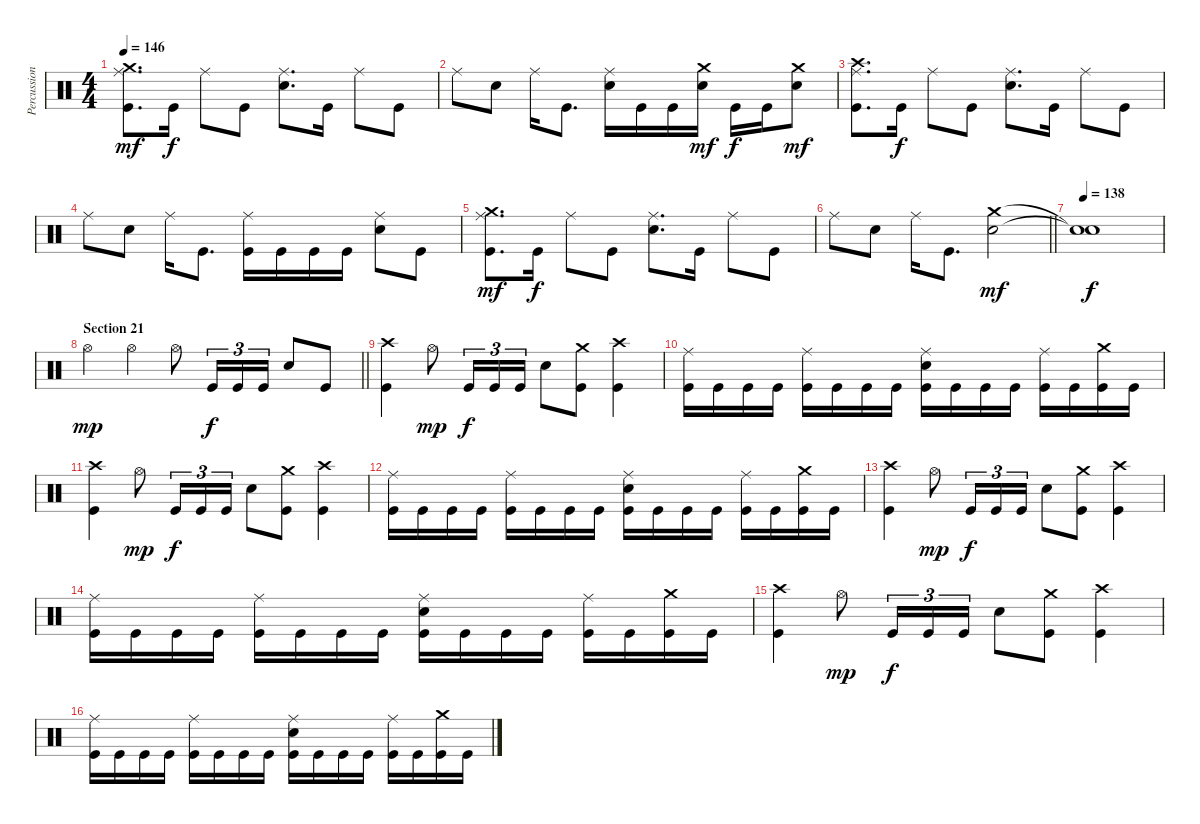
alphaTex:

\track ("Percussion" "Percussion") {instrument percussion}
\staff {score}
\articulation defaults
\ts (4 4)
\tempo 146
\clef neutral
\ks c
("Crash medium (hit)" "Ride (middle)" "Kick (hit)").8{d dy mf} "Kick (hit)".16{dy f} "Ride (middle)".8 "Kick (hit)".8 ("Ride (middle)" "Electric Snare (hit)").8{d} "Kick (hit)".16 "Ride (middle)".8 "Kick (hit)".8 |
"Ride (middle)".8 "Electric Snare (hit)".8 "Ride (middle)".16 "Kick (hit)".8{d} ("Ride (middle)" "Electric Snare (hit)").16 "Kick (hit)".16 "Kick (hit)".16 ("Crash medium (hit)" "Electric Snare (hit)").16{dy mf} "Kick (hit)".16{dy f} "Kick (hit)".16 ("Crash medium (hit)" "Electric Snare (hit)").8{dy mf} |
("Crash high (hit)" "Ride (middle)" "Kick (hit)").8{d} "Kick (hit)".16{dy f} "Ride (middle)".8 "Kick (hit)".8 ("Ride (middle)" "Electric Snare (hit)").8{d} "Kick (hit)".16 "Ride (middle)".8 "Kick (hit)".8 |
"Ride (middle)".8 "Electric Snare (hit)".8 "Ride (middle)".16 "Kick (hit)".8{d} ("Ride (middle)" "Kick (hit)").16 "Kick (hit)".16 "Kick (hit)".16 "Kick (hit)".16 ("Ride (middle)" "Electric Snare (hit)").8 "Kick (hit)".8 |
("Crash medium (hit)" "Ride (middle)" "Kick (hit)").8{d dy mf} "Kick (hit)".16{dy f} "Ride (middle)".8 "Kick (hit)".8 ("Ride (middle)" "Electric Snare (hit)").8{d} "Kick (hit)".16 "Ride (middle)".8 "Kick (hit)".8 |
\barLineRight lightlight "Ride (middle)".8 "Electric Snare (hit)".8 "Ride (middle)".16 "Kick (hit)".8{d}
("Crash medium (hit)" "Electric Snare (hit)").2{dy mf} |
\tempo 138
("Snare (hit)"{t} "Snare (hit)"{t}).1{dy f} |
\section ("" "Section 21")
\barLineRight lightlight "Hi-Hat (open)".4{dy mp} "Hi-Hat (open)".4 "Hi-Hat (open)".8 "Kick (hit)".16{tu (3 2) dy f} "Kick (hit)".16{tu (3 2)} "Kick (hit)".16{tu (3 2)} "Electric Snare (hit)".8 "Kick (hit)".8
|
("Crash high (hit)" "Kick (hit)").4 "Hi-Hat (open)".8{dy mp} "Kick (hit)".16{tu (3 2) dy f} "Kick (hit)".16{tu (3 2)} "Kick (hit)".16{tu (3 2)} "Electric Snare (hit)".8 ("Crash medium (hit)" "Kick (hit)").8 ("Crash high (hit)" "Kick (hit)").4 |
("Ride (middle)" "Kick (hit)").16 "Kick (hit)".16 "Kick (hit)".16 "Kick (hit)".16 ("Ride (middle)" "Kick (hit)").16 "Kick (hit)".16 "Kick (hit)".16 "Kick (hit)".16 ("Ride (middle)" "Electric Snare (hit)" "Kick (hit)").16 "Kick (hit)".16 "Kick (hit)".16 "Kick (hit)".16 ("Ride (middle)" "Kick (hit)").16 "Kick (hit)".16 ("Crash medium (hit)" "Kick (hit)").16 "Kick (hit)".16 |
("Crash high (hit)" "Kick (hit)").4 "Hi-Hat (open)".8{dy mp} "Kick (hit)".16{tu (3 2) dy f} "Kick (hit)".16{tu (3 2)} "Kick (hit)".16{tu (3 2)} "Electric Snare (hit)".8 ("Crash medium (hit)" "Kick (hit)").8 ("Crash high (hit)" "Kick (hit)").4 |
("Ride (middle)" "Kick (hit)").16 "Kick (hit)".16 "Kick (hit)".16 "Kick (hit)".16 ("Ride (middle)" "Kick (hit)").16 "Kick (hit)".16 "Kick (hit)".16 "Kick (hit)".16 ("Ride (middle)" "Electric Snare (hit)" "Kick (hit)").16 "Kick (hit)".16 "Kick (hit)".16 "Kick (hit)".16 ("Ride (middle)" "Kick (hit)").16 "Kick (hit)".16 ("Crash medium (hit)" "Kick (hit)").16 "Kick (hit)".16 |
("Crash high (hit)" "Kick (hit)").4 "Hi-Hat (open)".8{dy mp} "Kick (hit)".16{tu (3 2) dy f} "Kick (hit)".16{tu (3 2)} "Kick (hit)".16{tu (3 2)} "Electric Snare (hit)".8 ("Crash medium (hit)" "Kick (hit)").8 ("Crash high (hit)" "Kick (hit)").4 |
("Ride (middle)" "Kick (hit)").16 "Kick (hit)".16 "Kick (hit)".16 "Kick (hit)".16 ("Ride (middle)" "Kick (hit)").16 "Kick (hit)".16 "Kick (hit)".16 "Kick (hit)".16 ("Ride (middle)" "Electric Snare (hit)" "Kick (hit)").16 "Kick (hit)".16 "Kick (hit)".16 "Kick (hit)".16 ("Ride (middle)" "Kick (hit)").16 "Kick (hit)".16 ("Crash medium (hit)" "Kick (hit)").16 "Kick (hit)".16 |
("Crash high (hit)" "Kick (hit)").4 "Hi-Hat (open)".8{dy mp} "Kick (hit)".16{tu (3 2) dy f} "Kick (hit)".16{tu (3 2)} "Kick (hit)".16{tu (3 2)} "Electric Snare (hit)".8 ("Crash medium (hit)" "Kick (hit)").8 ("Crash high (hit)" "Kick (hit)").4 |
("Ride (middle)" "Kick (hit)").16 "Kick (hit)".16 "Kick (hit)".16 "Kick (hit)".16 ("Ride (middle)" "Kick (hit)").16 "Kick (hit)".16 "Kick (hit)".16 "Kick (hit)".16 ("Ride (middle)" "Electric Snare (hit)" "Kick (hit)").16 "Kick (hit)".16 "Kick (hit)".16 "Kick (hit)".16 ("Ride (middle)" "Kick (hit)").16 "Kick (hit)".16 ("Crash medium (hit)" "Kick (hit)").16 "Kick (hit)".16
